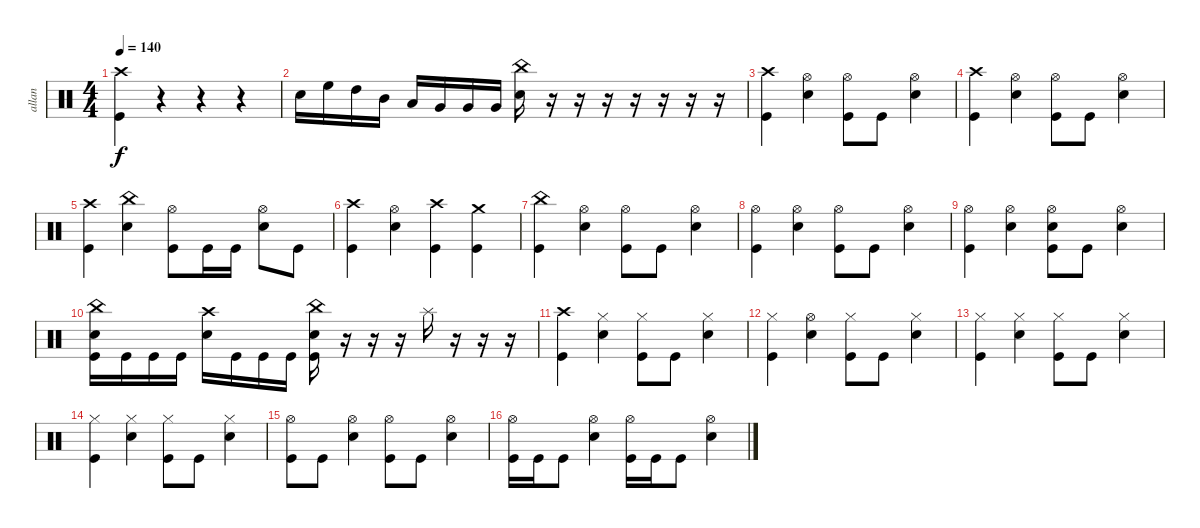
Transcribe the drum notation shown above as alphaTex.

\track ("allan" "allan") {instrument percussion}
\staff {score}
\articulation defaults
\ts (4 4)
\tempo 140
\clef neutral
\ks c
("Crash high (hit)" "Kick (hit)").4{dy f} r.4 r.4 r.4 |
"Snare (hit) 2".16 "High Floor Tom (hit)".16 "High Tom (hit)".16 "Mid Tom (hit)".16 "Low Tom (hit)".16 "Very Low Tom (hit)".16 "Very Low Tom (hit)".16 "Very Low Tom (hit)".16 ("China (hit)" "Snare (hit) 2").16 r.16 r.16 r.16 r.16 r.16 r.16 r.16 |
("Crash high (hit)" "Kick (hit)").4 ("Hi-Hat (open)" "Snare (hit) 2").4 ("Hi-Hat (open)" "Kick (hit)").8 "Kick (hit)".8 ("Hi-Hat (open)" "Snare (hit) 2").4 |
("Crash high (hit)" "Kick (hit)").4 ("Hi-Hat (open)" "Snare (hit) 2").4 ("Hi-Hat (open)" "Kick (hit)").8 "Kick (hit)".8 ("Hi-Hat (open)" "Snare (hit) 2").4 |
("Crash high (hit)" "Kick (hit)").4 ("China (hit)" "Snare (hit) 2").4 ("Hi-Hat (open)" "Kick (hit)").8 "Kick (hit)".16 "Kick (hit)".16 ("Hi-Hat (open)" "Snare (hit) 2").8 "Kick (hit)".8 |
("Crash high (hit)" "Kick (hit)").4 ("Hi-Hat (open)" "Snare (hit) 2").4 ("Crash high (hit)" "Kick (hit)").4 ("Crash medium (hit)" "Kick (hit)").4 |
("China (hit)" "Kick (hit)").4 ("Hi-Hat (open)" "Snare (hit) 2").4 ("Hi-Hat (open)" "Kick (hit)").8 "Kick (hit)".8 ("Hi-Hat (open)" "Snare (hit) 2").4 |
("Hi-Hat (open)" "Kick (hit)").4 ("Hi-Hat (open)" "Snare (hit) 2").4 ("Hi-Hat (open)" "Kick (hit)").8 "Kick (hit)".8 ("Hi-Hat (open)" "Snare (hit) 2").4 |
("Hi-Hat (open)" "Kick (hit)").4 ("Hi-Hat (open)" "Snare (hit) 2").4 ("Hi-Hat (open)" "Snare (hit) 2" "Kick (hit)").8 "Kick (hit)".8 ("Hi-Hat (open)" "Snare (hit) 2").4 |
("China (hit)" "Snare (hit) 2" "Kick (hit)").16 "Kick (hit)".16 "Kick (hit)".16 "Kick (hit)".16 ("Crash high (hit)" "Snare (hit) 2").16 "Kick (hit)".16 "Kick (hit)".16 "Kick (hit)".16 ("China (hit)" "Snare (hit) 2" "Kick (hit)").16 r.16 r.16 r.16 "Splash (hit)".16 r.16 r.16 r.16 |
("Crash high (hit)" "Kick (hit)").4 ("Hi-Hat (closed)" "Snare (hit) 2").4 ("Hi-Hat (closed)" "Kick (hit)").8 "Kick (hit)".8 ("Hi-Hat (closed)" "Snare (hit) 2").4 |
("Hi-Hat (closed)" "Kick (hit)").4 ("Hi-Hat (open)" "Snare (hit) 2").4 ("Hi-Hat (closed)" "Kick (hit)").8 "Kick (hit)".8 ("Hi-Hat (closed)" "Snare (hit) 2").4 |
("Hi-Hat (closed)" "Kick (hit)").4 ("Hi-Hat (closed)" "Snare (hit) 2").4 ("Hi-Hat (closed)" "Kick (hit)").8 "Kick (hit)".8 ("Hi-Hat (closed)" "Snare (hit) 2").4 |
("Hi-Hat (closed)" "Kick (hit)").4 ("Hi-Hat (closed)" "Snare (hit) 2").4 ("Hi-Hat (closed)" "Kick (hit)").8 "Kick (hit)".8 ("Hi-Hat (closed)" "Snare (hit) 2").4 |
("Hi-Hat (open)" "Kick (hit)").8 "Kick (hit)".8 ("Hi-Hat (open)" "Snare (hit) 2").4 ("Hi-Hat (open)" "Kick (hit)").8 "Kick (hit)".8 ("Hi-Hat (open)" "Snare (hit) 2").4 |
("Hi-Hat (open)" "Kick (hit)").16 "Kick (hit)".16 "Kick (hit)".8 ("Hi-Hat (open)" "Snare (hit) 2").4 ("Hi-Hat (open)" "Kick (hit)").16 "Kick (hit)".16 "Kick (hit)".8 ("Hi-Hat (open)" "Snare (hit) 2").4
